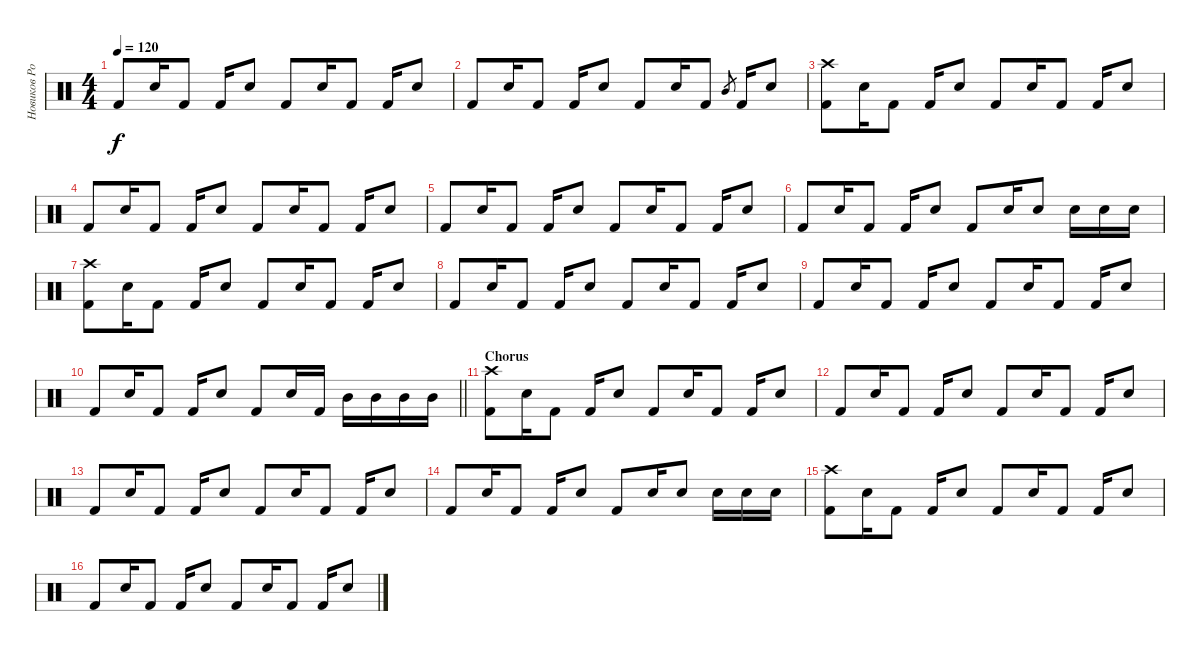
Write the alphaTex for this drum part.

\track ("Новиков Роман ( Ударные )" "Новиков Ро") {instrument percussion}
\staff {score}
\articulation defaults
\ts (4 4)
\tempo 120
\clef neutral
\ks c "Kick (hit) 2".8{dy f} "Electric Snare (hit)".16 "Kick (hit) 2".8 "Kick (hit) 2".16 "Electric Snare (hit)".8 "Kick (hit) 2".8 "Electric Snare (hit)".16 "Kick (hit) 2".8 "Kick (hit) 2".16 "Electric Snare (hit)".8
|
"Kick (hit) 2".8 "Electric Snare (hit)".16 "Kick (hit) 2".8 "Kick (hit) 2".16 "Electric Snare (hit)".8 "Kick (hit) 2".8 "Electric Snare (hit)".16 "Kick (hit) 2".8 "Mid Tom (hit)"{h}.8{gr} "Kick (hit) 2".16 "Snare (hit) 2".8 |
("Crash high (hit)" "Kick (hit) 2").8 "Electric Snare (hit)".16 "Kick (hit) 2".8 "Kick (hit) 2".16 "Electric Snare (hit)".8 "Kick (hit) 2".8 "Electric Snare (hit)".16 "Kick (hit) 2".8 "Kick (hit) 2".16 "Electric Snare (hit)".8 |
"Kick (hit) 2".8 "Electric Snare (hit)".16 "Kick (hit) 2".8 "Kick (hit) 2".16 "Electric Snare (hit)".8 "Kick (hit) 2".8 "Electric Snare (hit)".16 "Kick (hit) 2".8 "Kick (hit) 2".16 "Electric Snare (hit)".8 |
"Kick (hit) 2".8 "Electric Snare (hit)".16 "Kick (hit) 2".8 "Kick (hit) 2".16 "Electric Snare (hit)".8 "Kick (hit) 2".8 "Electric Snare (hit)".16 "Kick (hit) 2".8 "Kick (hit) 2".16 "Electric Snare (hit)".8 |
"Kick (hit) 2".8 "Electric Snare (hit)".16 "Kick (hit) 2".8 "Kick (hit) 2".16 "Electric Snare (hit)".8 "Kick (hit) 2".8 "Electric Snare (hit)".16 "Snare (hit) 2".8 "Snare (hit) 2".16 "Snare (hit) 2".16 "Snare (hit) 2".16 |
("Crash high (hit)" "Kick (hit) 2").8 "Electric Snare (hit)".16 "Kick (hit) 2".8 "Kick (hit) 2".16 "Electric Snare (hit)".8 "Kick (hit) 2".8 "Electric Snare (hit)".16 "Kick (hit) 2".8 "Kick (hit) 2".16 "Electric Snare (hit)".8 |
"Kick (hit) 2".8 "Electric Snare (hit)".16 "Kick (hit) 2".8 "Kick (hit) 2".16 "Electric Snare (hit)".8 "Kick (hit) 2".8 "Electric Snare (hit)".16 "Kick (hit) 2".8 "Kick (hit) 2".16 "Electric Snare (hit)".8 |
"Kick (hit) 2".8 "Electric Snare (hit)".16 "Kick (hit) 2".8 "Kick (hit) 2".16 "Electric Snare (hit)".8 "Kick (hit) 2".8 "Electric Snare (hit)".16 "Kick (hit) 2".8 "Kick (hit) 2".16 "Electric Snare (hit)".8 |
\barLineRight lightlight "Kick (hit) 2".8 "Electric Snare (hit)".16 "Kick (hit) 2".8 "Kick (hit) 2".16 "Electric Snare (hit)".8 "Kick (hit) 2".8 "Electric Snare (hit)".16 "Kick (hit) 2".16 "Mid Tom (hit)".16 "Mid Tom (hit)".16 "Mid Tom (hit)".16 "Mid Tom (hit)".16
|
\section ("" "Chorus")
("Crash high (hit)" "Kick (hit) 2").8 "Electric Snare (hit)".16 "Kick (hit) 2".8 "Kick (hit) 2".16 "Electric Snare (hit)".8 "Kick (hit) 2".8 "Electric Snare (hit)".16 "Kick (hit) 2".8 "Kick (hit) 2".16 "Electric Snare (hit)".8 |
"Kick (hit) 2".8 "Electric Snare (hit)".16 "Kick (hit) 2".8 "Kick (hit) 2".16 "Electric Snare (hit)".8 "Kick (hit) 2".8 "Electric Snare (hit)".16 "Kick (hit) 2".8 "Kick (hit) 2".16 "Electric Snare (hit)".8 |
"Kick (hit) 2".8 "Electric Snare (hit)".16 "Kick (hit) 2".8 "Kick (hit) 2".16 "Electric Snare (hit)".8 "Kick (hit) 2".8 "Electric Snare (hit)".16 "Kick (hit) 2".8 "Kick (hit) 2".16 "Electric Snare (hit)".8 |
"Kick (hit) 2".8 "Electric Snare (hit)".16 "Kick (hit) 2".8 "Kick (hit) 2".16 "Electric Snare (hit)".8 "Kick (hit) 2".8 "Electric Snare (hit)".16 "Snare (hit) 2".8 "Snare (hit) 2".16 "Snare (hit) 2".16 "Snare (hit) 2".16 |
("Crash high (hit)" "Kick (hit) 2").8 "Electric Snare (hit)".16 "Kick (hit) 2".8 "Kick (hit) 2".16 "Electric Snare (hit)".8 "Kick (hit) 2".8 "Electric Snare (hit)".16 "Kick (hit) 2".8 "Kick (hit) 2".16 "Electric Snare (hit)".8 |
"Kick (hit) 2".8 "Electric Snare (hit)".16 "Kick (hit) 2".8 "Kick (hit) 2".16 "Electric Snare (hit)".8 "Kick (hit) 2".8 "Electric Snare (hit)".16 "Kick (hit) 2".8 "Kick (hit) 2".16 "Electric Snare (hit)".8
